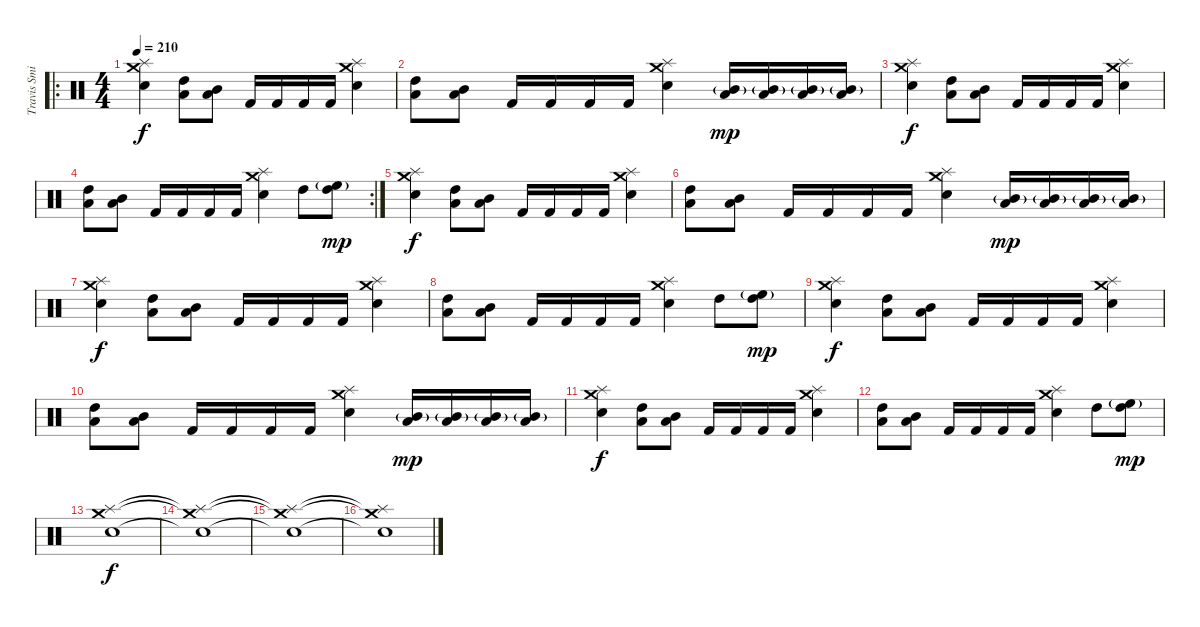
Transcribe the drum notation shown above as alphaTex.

\track ("Travis Smith" "Travis Smi") {instrument percussion}
\staff {score}
\articulation defaults
\ro
\ts (4 4)
\tempo 210
\clef neutral
\ks c
("Crash medium (hit)" "Splash (hit)" "Electric Snare (hit)").4{dy f} ("High Tom (hit)" "Low Tom (hit)").8 ("Mid Tom (hit)" "Low Tom (hit)").8 "Kick (hit) 2".16 "Kick (hit) 2".16 "Kick (hit) 2".16 "Kick (hit) 2".16 ("Crash medium (hit)" "Splash (hit)" "Electric Snare (hit)").4 |
("High Tom (hit)" "Low Tom (hit)").8 ("Mid Tom (hit)" "Low Tom (hit)").8 "Kick (hit) 2".16 "Kick (hit) 2".16 "Kick (hit) 2".16 "Kick (hit) 2".16 ("Crash medium (hit)" "Splash (hit)" "Electric Snare (hit)").4 ("Mid Tom (hit)"{g} "Low Tom (hit)").16{dy mp} ("Mid Tom (hit)"{g} "Low Tom (hit)").16 ("Mid Tom (hit)"{g} "Low Tom (hit)").16 ("Mid Tom (hit)"{g} "Low Tom (hit)").16 |
("Crash medium (hit)" "Splash (hit)" "Electric Snare (hit)").4{dy f} ("High Tom (hit)" "Low Tom (hit)").8 ("Mid Tom (hit)" "Low Tom (hit)").8 "Kick (hit) 2".16 "Kick (hit) 2".16 "Kick (hit) 2".16 "Kick (hit) 2".16 ("Crash medium (hit)" "Splash (hit)" "Electric Snare (hit)").4 |
\rc 2
("High Tom (hit)" "Low Tom (hit)").8 ("Mid Tom (hit)" "Low Tom (hit)").8 "Kick (hit) 2".16 "Kick (hit) 2".16 "Kick (hit) 2".16 "Kick (hit) 2".16 ("Crash medium (hit)" "Splash (hit)" "Electric Snare (hit)").4 "High Tom (hit)".8 ("High Floor Tom (hit)"{g} "High Tom (hit)").8{dy mp} |
("Crash medium (hit)" "Splash (hit)" "Electric Snare (hit)").4{dy f} ("High Tom (hit)" "Low Tom (hit)").8 ("Mid Tom (hit)" "Low Tom (hit)").8 "Kick (hit) 2".16 "Kick (hit) 2".16 "Kick (hit) 2".16 "Kick (hit) 2".16 ("Crash medium (hit)" "Splash (hit)" "Electric Snare (hit)").4 |
("High Tom (hit)" "Low Tom (hit)").8 ("Mid Tom (hit)" "Low Tom (hit)").8 "Kick (hit) 2".16 "Kick (hit) 2".16 "Kick (hit) 2".16 "Kick (hit) 2".16 ("Crash medium (hit)" "Splash (hit)" "Electric Snare (hit)").4 ("Mid Tom (hit)"{g} "Low Tom (hit)").16{dy mp} ("Mid Tom (hit)"{g} "Low Tom (hit)").16 ("Mid Tom (hit)"{g} "Low Tom (hit)").16 ("Mid Tom (hit)"{g} "Low Tom (hit)").16 |
("Crash medium (hit)" "Splash (hit)" "Electric Snare (hit)").4{dy f} ("High Tom (hit)" "Low Tom (hit)").8 ("Mid Tom (hit)" "Low Tom (hit)").8 "Kick (hit) 2".16 "Kick (hit) 2".16 "Kick (hit) 2".16 "Kick (hit) 2".16 ("Crash medium (hit)" "Splash (hit)" "Electric Snare (hit)").4 |
("High Tom (hit)" "Low Tom (hit)").8 ("Mid Tom (hit)" "Low Tom (hit)").8 "Kick (hit) 2".16 "Kick (hit) 2".16 "Kick (hit) 2".16 "Kick (hit) 2".16 ("Crash medium (hit)" "Splash (hit)" "Electric Snare (hit)").4 "High Tom (hit)".8 ("High Floor Tom (hit)"{g} "High Tom (hit)").8{dy mp} |
("Crash medium (hit)" "Splash (hit)" "Electric Snare (hit)").4{dy f} ("High Tom (hit)" "Low Tom (hit)").8 ("Mid Tom (hit)" "Low Tom (hit)").8 "Kick (hit) 2".16 "Kick (hit) 2".16 "Kick (hit) 2".16 "Kick (hit) 2".16 ("Crash medium (hit)" "Splash (hit)" "Electric Snare (hit)").4 |
("High Tom (hit)" "Low Tom (hit)").8 ("Mid Tom (hit)" "Low Tom (hit)").8 "Kick (hit) 2".16 "Kick (hit) 2".16 "Kick (hit) 2".16 "Kick (hit) 2".16 ("Crash medium (hit)" "Splash (hit)" "Electric Snare (hit)").4 ("Mid Tom (hit)"{g} "Low Tom (hit)").16{dy mp} ("Mid Tom (hit)"{g} "Low Tom (hit)").16 ("Mid Tom (hit)"{g} "Low Tom (hit)").16 ("Mid Tom (hit)"{g} "Low Tom (hit)").16 |
("Crash medium (hit)" "Splash (hit)" "Electric Snare (hit)").4{dy f} ("High Tom (hit)" "Low Tom (hit)").8 ("Mid Tom (hit)" "Low Tom (hit)").8 "Kick (hit) 2".16 "Kick (hit) 2".16 "Kick (hit) 2".16 "Kick (hit) 2".16 ("Crash medium (hit)" "Splash (hit)" "Electric Snare (hit)").4 |
("High Tom (hit)" "Low Tom (hit)").8 ("Mid Tom (hit)" "Low Tom (hit)").8 "Kick (hit) 2".16 "Kick (hit) 2".16 "Kick (hit) 2".16 "Kick (hit) 2".16 ("Crash medium (hit)" "Splash (hit)" "Electric Snare (hit)").4 "High Tom (hit)".8 ("High Floor Tom (hit)"{g} "High Tom (hit)").8{dy mp} |
("Crash medium (hit)" "Splash (hit)" "Electric Snare (hit)").1{dy f} |
("Crash medium (hit)"{t} "Splash (hit)"{t} "Electric Snare (hit)"{t}).1 |
("Crash medium (hit)"{t} "Splash (hit)"{t} "Electric Snare (hit)"{t}).1 |
("Crash medium (hit)"{t} "Splash (hit)"{t} "Electric Snare (hit)"{t}).1
